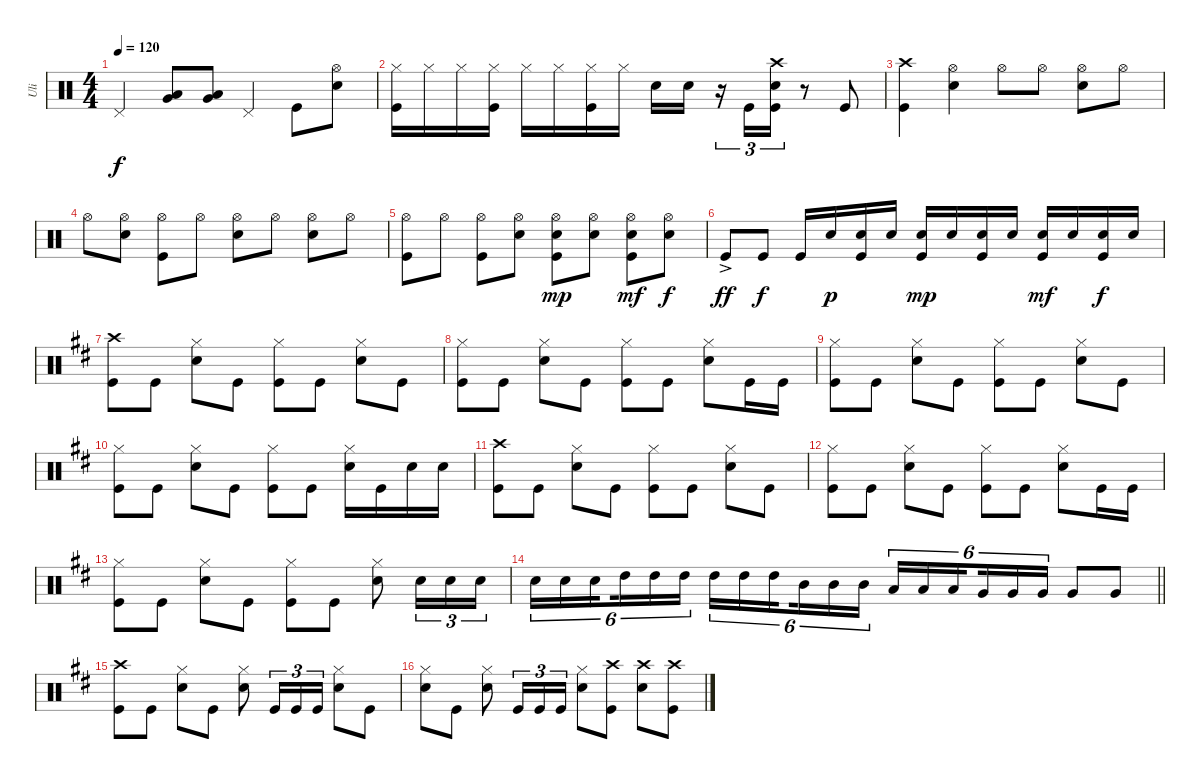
\track ("Uli" "Uli") {instrument percussion}
\staff {score}
\articulation defaults
\ts (4 4)
\tempo 120
\clef neutral
\ks aminor "Pedal Hi-Hat (hit)".4{dy f}
("Low Tom (hit)" "Very Low Tom (hit)").8 ("Low Tom (hit)" "Very Low Tom (hit)").8 "Pedal Hi-Hat (hit)".4 "Kick (hit)".8 ("Hi-Hat (open)" "Snare (hit) 2").8 |
("Hi-Hat (closed)" "Kick (hit)").16 "Hi-Hat (closed)".16 "Hi-Hat (closed)".16 ("Hi-Hat (closed)" "Kick (hit)").16 "Hi-Hat (closed)".16 "Hi-Hat (closed)".16 ("Hi-Hat (closed)" "Kick (hit)").16 "Hi-Hat (closed)".16 "Snare (hit) 2".16 "Snare (hit) 2".16 r.16{tu (3 2)} "Kick (hit)".16{tu (3 2)} ("Crash high (hit)" "Snare (hit) 2" "Kick (hit)").16{tu (3 2)} r.8 "Kick (hit)".8 |
("Crash high (hit)" "Kick (hit)").4 ("Hi-Hat (open)" "Snare (hit) 2").4 "Hi-Hat (open)".8 "Hi-Hat (open)".8 ("Hi-Hat (open)" "Snare (hit) 2").8 "Hi-Hat (open)".8 |
"Hi-Hat (open)".8 ("Hi-Hat (open)" "Snare (hit) 2").8 ("Hi-Hat (open)" "Kick (hit)").8 "Hi-Hat (open)".8 ("Hi-Hat (open)" "Snare (hit) 2").8 "Hi-Hat (open)".8 ("Hi-Hat (open)" "Snare (hit) 2").8 "Hi-Hat (open)".8 |
("Hi-Hat (open)" "Kick (hit)").8 "Hi-Hat (open)".8 ("Hi-Hat (open)" "Kick (hit)").8 ("Hi-Hat (open)" "Snare (hit) 2").8 ("Hi-Hat (open)" "Snare (hit) 2" "Kick (hit)").8{dy mp} ("Hi-Hat (open)" "Snare (hit) 2").8 ("Hi-Hat (open)" "Snare (hit) 2" "Kick (hit)").8{dy mf} ("Hi-Hat (open)" "Snare (hit) 2").8{dy f} |
"Kick (hit)"{ac}.8{dy ff} "Kick (hit)".8{dy f} "Kick (hit)".16 "Snare (hit) 2".16{dy p} ("Snare (hit) 2" "Kick (hit)").16 "Snare (hit) 2".16 ("Snare (hit) 2" "Kick (hit)").16{dy mp} "Snare (hit) 2".16 ("Snare (hit) 2" "Kick (hit)").16 "Snare (hit) 2".16 ("Snare (hit) 2" "Kick (hit)").16{dy mf} "Snare (hit) 2".16 ("Snare (hit) 2" "Kick (hit)").16{dy f} "Snare (hit) 2".16 |
\ks bminor
("Crash high (hit)" "Kick (hit)").8 "Kick (hit)".8 ("Hi-Hat (closed)" "Snare (hit) 2").8 "Kick (hit)".8 ("Hi-Hat (closed)" "Kick (hit)").8 "Kick (hit)".8 ("Hi-Hat (closed)" "Snare (hit) 2").8 "Kick (hit)".8 |
("Hi-Hat (closed)" "Kick (hit)").8 "Kick (hit)".8 ("Hi-Hat (closed)" "Snare (hit) 2").8 "Kick (hit)".8 ("Hi-Hat (closed)" "Kick (hit)").8 "Kick (hit)".8 ("Hi-Hat (closed)" "Snare (hit) 2").8 "Kick (hit)".16 "Kick (hit)".16 |
("Hi-Hat (closed)" "Kick (hit)").8 "Kick (hit)".8 ("Hi-Hat (closed)" "Snare (hit) 2").8 "Kick (hit)".8 ("Hi-Hat (closed)" "Kick (hit)").8 "Kick (hit)".8 ("Hi-Hat (closed)" "Snare (hit) 2").8 "Kick (hit)".8 |
("Hi-Hat (closed)" "Kick (hit)").8 "Kick (hit)".8 ("Hi-Hat (closed)" "Snare (hit) 2").8 "Kick (hit)".8 ("Hi-Hat (closed)" "Kick (hit)").8 "Kick (hit)".8 ("Hi-Hat (closed)" "Snare (hit) 2").16 "Kick (hit)".16 "Snare (hit) 2".16 "Snare (hit) 2".16 |
("Crash high (hit)" "Kick (hit)").8 "Kick (hit)".8 ("Hi-Hat (closed)" "Snare (hit) 2").8 "Kick (hit)".8 ("Hi-Hat (closed)" "Kick (hit)").8 "Kick (hit)".8 ("Hi-Hat (closed)" "Snare (hit) 2").8 "Kick (hit)".8 |
("Hi-Hat (closed)" "Kick (hit)").8 "Kick (hit)".8 ("Hi-Hat (closed)" "Snare (hit) 2").8 "Kick (hit)".8 ("Hi-Hat (closed)" "Kick (hit)").8 "Kick (hit)".8 ("Hi-Hat (closed)" "Snare (hit) 2").8 "Kick (hit)".16 "Kick (hit)".16 |
("Hi-Hat (closed)" "Kick (hit)").8 "Kick (hit)".8 ("Hi-Hat (closed)" "Snare (hit) 2").8 "Kick (hit)".8 ("Hi-Hat (closed)" "Kick (hit)").8 "Kick (hit)".8 ("Hi-Hat (closed)" "Snare (hit) 2").8 "Snare (hit) 2".16{tu (3 2)} "Snare (hit) 2".16{tu (3 2)} "Snare (hit) 2".16{tu (3 2)} |
\barLineRight lightlight "Snare (hit) 2".16{tu (6 4)} "Snare (hit) 2".16{tu (6 4)} "Snare (hit) 2".16{tu (6 4) beam splitsecondary} "High Tom (hit)".16{tu (6 4)} "High Tom (hit)".16{tu (6 4)} "High Tom (hit)".16{tu (6 4)} "High Tom (hit)".16{tu (6 4)} "High Tom (hit)".16{tu (6 4)} "High Tom (hit)".16{tu (6 4) beam splitsecondary} "Mid Tom (hit)".16{tu (6 4)} "Mid Tom (hit)".16{tu (6 4)} "Mid Tom (hit)".16{tu (6 4)} "Low Tom (hit)".16{tu (6 4)} "Low Tom (hit)".16{tu (6 4)} "Low Tom (hit)".16{tu (6 4) beam splitsecondary} "Very Low Tom (hit)".16{tu (6 4)} "Very Low Tom (hit)".16{tu (6 4)} "Very Low Tom (hit)".16{tu (6 4)} "Very Low Tom (hit)".8 "Very Low Tom (hit)".8
|
("Crash high (hit)" "Kick (hit)").8 "Kick (hit)".8 ("Hi-Hat (closed)" "Snare (hit) 2").8 "Kick (hit)".8 ("Hi-Hat (closed)" "Snare (hit) 2").8 "Kick (hit)".16{tu (3 2)} "Kick (hit)".16{tu (3 2)} "Kick (hit)".16{tu (3 2)} ("Hi-Hat (closed)" "Snare (hit) 2").8 "Kick (hit)".8 |
("Hi-Hat (closed)" "Snare (hit) 2").8 "Kick (hit)".8 ("Hi-Hat (closed)" "Snare (hit) 2").8 "Kick (hit)".16{tu (3 2)} "Kick (hit)".16{tu (3 2)} "Kick (hit)".16{tu (3 2)} ("Hi-Hat (closed)" "Snare (hit) 2").8 ("Crash high (hit)" "Kick (hit)").8 ("Crash high (hit)" "Snare (hit) 2").8 ("Crash high (hit)" "Kick (hit)").8
